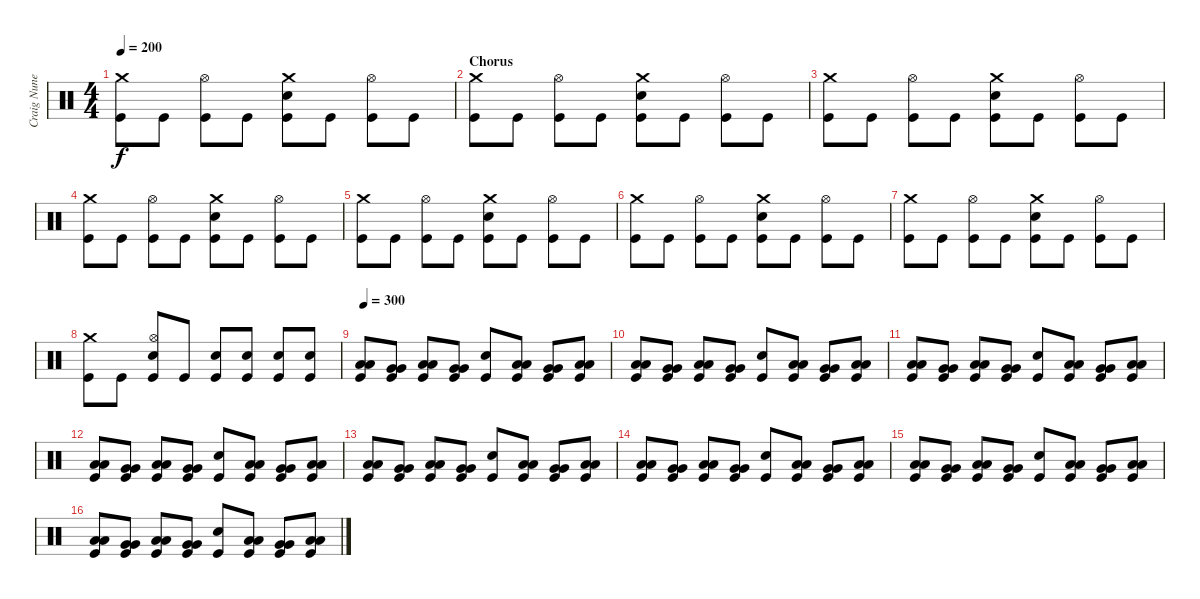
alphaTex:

\track ("Craig Nunenmacher" "Craig Nune") {instrument percussion}
\staff {score}
\articulation defaults
\ts (4 4)
\tempo 200
\clef neutral
\ks c
("Crash medium (hit)" "Kick (hit)").8{dy f} "Kick (hit)".8 ("Hi-Hat (open)" "Kick (hit)").8 "Kick (hit)".8 ("Crash medium (hit)" "Snare (hit) 2" "Kick (hit)").8 "Kick (hit)".8 ("Hi-Hat (open)" "Kick (hit)").8 "Kick (hit)".8 |
\section ("" "Chorus")
("Crash medium (hit)" "Kick (hit)").8 "Kick (hit)".8 ("Hi-Hat (open)" "Kick (hit)").8 "Kick (hit)".8 ("Crash medium (hit)" "Snare (hit) 2" "Kick (hit)").8 "Kick (hit)".8 ("Hi-Hat (open)" "Kick (hit)").8 "Kick (hit)".8 |
("Crash medium (hit)" "Kick (hit)").8 "Kick (hit)".8 ("Hi-Hat (open)" "Kick (hit)").8 "Kick (hit)".8 ("Crash medium (hit)" "Snare (hit) 2" "Kick (hit)").8 "Kick (hit)".8 ("Hi-Hat (open)" "Kick (hit)").8 "Kick (hit)".8 |
("Crash medium (hit)" "Kick (hit)").8 "Kick (hit)".8 ("Hi-Hat (open)" "Kick (hit)").8 "Kick (hit)".8 ("Crash medium (hit)" "Snare (hit) 2" "Kick (hit)").8 "Kick (hit)".8 ("Hi-Hat (open)" "Kick (hit)").8 "Kick (hit)".8 |
("Crash medium (hit)" "Kick (hit)").8 "Kick (hit)".8 ("Hi-Hat (open)" "Kick (hit)").8 "Kick (hit)".8 ("Crash medium (hit)" "Snare (hit) 2" "Kick (hit)").8 "Kick (hit)".8 ("Hi-Hat (open)" "Kick (hit)").8 "Kick (hit)".8 |
("Crash medium (hit)" "Kick (hit)").8 "Kick (hit)".8 ("Hi-Hat (open)" "Kick (hit)").8 "Kick (hit)".8 ("Crash medium (hit)" "Snare (hit) 2" "Kick (hit)").8 "Kick (hit)".8 ("Hi-Hat (open)" "Kick (hit)").8 "Kick (hit)".8 |
("Crash medium (hit)" "Kick (hit)").8 "Kick (hit)".8 ("Hi-Hat (open)" "Kick (hit)").8 "Kick (hit)".8 ("Crash medium (hit)" "Snare (hit) 2" "Kick (hit)").8 "Kick (hit)".8 ("Hi-Hat (open)" "Kick (hit)").8 "Kick (hit)".8 |
("Crash medium (hit)" "Kick (hit)").8 "Kick (hit)".8 ("Hi-Hat (open)" "Snare (hit) 2" "Kick (hit)").8 "Kick (hit)".8 ("Snare (hit) 2" "Kick (hit)").8 ("Snare (hit) 2" "Kick (hit)").8 ("Snare (hit) 2" "Kick (hit)").8 ("Snare (hit) 2" "Kick (hit)").8 |
\tempo 300
("Low Tom (hit)" "Low Tom (hit)" "Kick (hit)").8 ("Very Low Tom (hit)" "Very Low Tom (hit)" "Kick (hit)").8 ("Low Tom (hit)" "Low Tom (hit)" "Kick (hit)").8 ("Very Low Tom (hit)" "Very Low Tom (hit)" "Kick (hit)").8 ("Snare (hit) 2" "Kick (hit)").8 ("Low Tom (hit)" "Low Tom (hit)" "Kick (hit)").8 ("Very Low Tom (hit)" "Very Low Tom (hit)" "Kick (hit)").8 ("Low Tom (hit)" "Low Tom (hit)" "Kick (hit)").8 |
("Low Tom (hit)" "Low Tom (hit)" "Kick (hit)").8 ("Very Low Tom (hit)" "Very Low Tom (hit)" "Kick (hit)").8 ("Low Tom (hit)" "Low Tom (hit)" "Kick (hit)").8 ("Very Low Tom (hit)" "Very Low Tom (hit)" "Kick (hit)").8 ("Snare (hit) 2" "Kick (hit)").8 ("Low Tom (hit)" "Low Tom (hit)" "Kick (hit)").8 ("Very Low Tom (hit)" "Very Low Tom (hit)" "Kick (hit)").8 ("Low Tom (hit)" "Low Tom (hit)" "Kick (hit)").8 |
("Low Tom (hit)" "Low Tom (hit)" "Kick (hit)").8 ("Very Low Tom (hit)" "Very Low Tom (hit)" "Kick (hit)").8 ("Low Tom (hit)" "Low Tom (hit)" "Kick (hit)").8 ("Very Low Tom (hit)" "Very Low Tom (hit)" "Kick (hit)").8 ("Snare (hit) 2" "Kick (hit)").8 ("Low Tom (hit)" "Low Tom (hit)" "Kick (hit)").8 ("Very Low Tom (hit)" "Very Low Tom (hit)" "Kick (hit)").8 ("Low Tom (hit)" "Low Tom (hit)" "Kick (hit)").8 |
("Low Tom (hit)" "Low Tom (hit)" "Kick (hit)").8 ("Very Low Tom (hit)" "Very Low Tom (hit)" "Kick (hit)").8 ("Low Tom (hit)" "Low Tom (hit)" "Kick (hit)").8 ("Very Low Tom (hit)" "Very Low Tom (hit)" "Kick (hit)").8 ("Snare (hit) 2" "Kick (hit)").8 ("Low Tom (hit)" "Low Tom (hit)" "Kick (hit)").8 ("Very Low Tom (hit)" "Very Low Tom (hit)" "Kick (hit)").8 ("Low Tom (hit)" "Low Tom (hit)" "Kick (hit)").8 |
("Low Tom (hit)" "Low Tom (hit)" "Kick (hit)").8 ("Very Low Tom (hit)" "Very Low Tom (hit)" "Kick (hit)").8 ("Low Tom (hit)" "Low Tom (hit)" "Kick (hit)").8 ("Very Low Tom (hit)" "Very Low Tom (hit)" "Kick (hit)").8 ("Snare (hit) 2" "Kick (hit)").8 ("Low Tom (hit)" "Low Tom (hit)" "Kick (hit)").8 ("Very Low Tom (hit)" "Very Low Tom (hit)" "Kick (hit)").8 ("Low Tom (hit)" "Low Tom (hit)" "Kick (hit)").8 |
("Low Tom (hit)" "Low Tom (hit)" "Kick (hit)").8 ("Very Low Tom (hit)" "Very Low Tom (hit)" "Kick (hit)").8 ("Low Tom (hit)" "Low Tom (hit)" "Kick (hit)").8 ("Very Low Tom (hit)" "Very Low Tom (hit)" "Kick (hit)").8 ("Snare (hit) 2" "Kick (hit)").8 ("Low Tom (hit)" "Low Tom (hit)" "Kick (hit)").8 ("Very Low Tom (hit)" "Very Low Tom (hit)" "Kick (hit)").8 ("Low Tom (hit)" "Low Tom (hit)" "Kick (hit)").8 |
("Low Tom (hit)" "Low Tom (hit)" "Kick (hit)").8 ("Very Low Tom (hit)" "Very Low Tom (hit)" "Kick (hit)").8 ("Low Tom (hit)" "Low Tom (hit)" "Kick (hit)").8 ("Very Low Tom (hit)" "Very Low Tom (hit)" "Kick (hit)").8 ("Snare (hit) 2" "Kick (hit)").8 ("Low Tom (hit)" "Low Tom (hit)" "Kick (hit)").8 ("Very Low Tom (hit)" "Very Low Tom (hit)" "Kick (hit)").8 ("Low Tom (hit)" "Low Tom (hit)" "Kick (hit)").8 |
("Low Tom (hit)" "Low Tom (hit)" "Kick (hit)").8 ("Very Low Tom (hit)" "Very Low Tom (hit)" "Kick (hit)").8 ("Low Tom (hit)" "Low Tom (hit)" "Kick (hit)").8 ("Very Low Tom (hit)" "Very Low Tom (hit)" "Kick (hit)").8 ("Snare (hit) 2" "Kick (hit)").8 ("Low Tom (hit)" "Low Tom (hit)" "Kick (hit)").8 ("Very Low Tom (hit)" "Very Low Tom (hit)" "Kick (hit)").8 ("Low Tom (hit)" "Low Tom (hit)" "Kick (hit)").8
